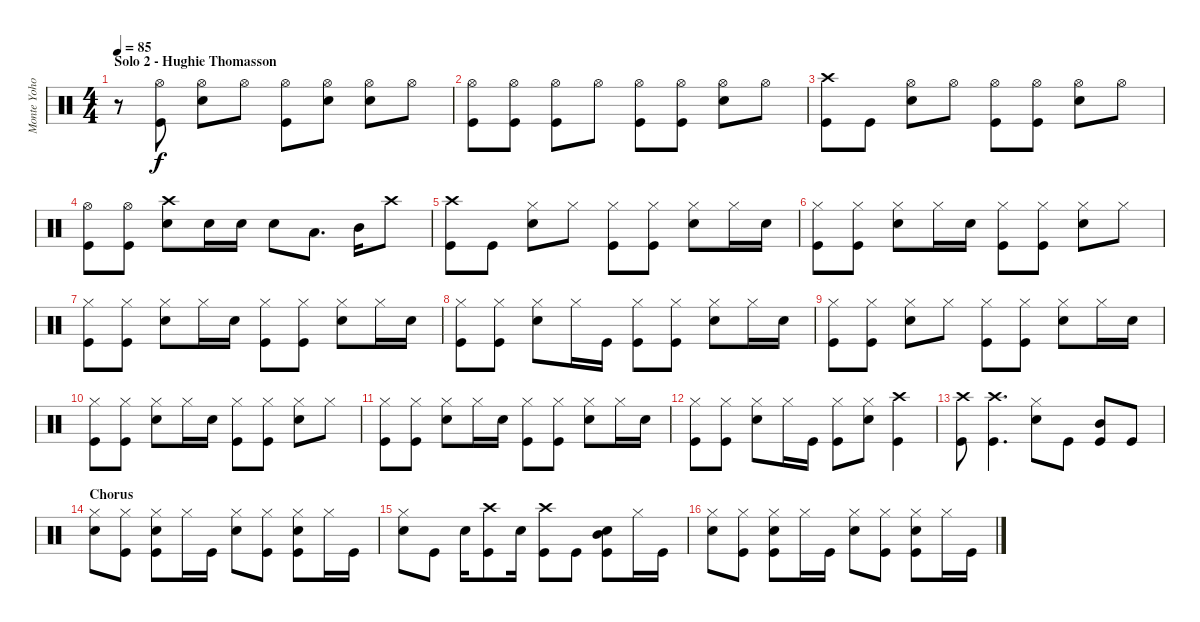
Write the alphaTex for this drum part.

\track ("Monte Yoho - Drums" "Monte Yoho") {instrument percussion}
\staff {score}
\articulation defaults
\ts (4 4)
\section ("" "Solo 2 - Hughie Thomasson")
\tempo 85
\clef neutral
\ks c
r.8{dy f} ("Hi-Hat (open)" "Kick (hit)").8 ("Hi-Hat (open)" "Snare (hit) 2").8 "Hi-Hat (open)".8 ("Hi-Hat (open)" "Kick (hit)").8 ("Hi-Hat (open)" "Snare (hit) 2").8 ("Hi-Hat (open)" "Snare (hit) 2").8 "Hi-Hat (open)".8 |
("Hi-Hat (open)" "Kick (hit)").8 ("Hi-Hat (open)" "Kick (hit)").8 ("Hi-Hat (open)" "Kick (hit)").8 "Hi-Hat (open)".8 ("Hi-Hat (open)" "Kick (hit)").8 ("Hi-Hat (open)" "Kick (hit)").8 ("Hi-Hat (open)" "Snare (hit) 2").8 "Hi-Hat (open)".8 |
("Crash high (hit)" "Kick (hit)").8 "Kick (hit)".8 ("Hi-Hat (open)" "Snare (hit) 2").8 "Hi-Hat (open)".8 ("Hi-Hat (open)" "Kick (hit)").8 ("Hi-Hat (open)" "Kick (hit)").8 ("Hi-Hat (open)" "Snare (hit) 2").8 "Hi-Hat (open)".8 |
("Hi-Hat (open)" "Kick (hit)").8 ("Hi-Hat (open)" "Kick (hit)").8 ("Crash high (hit)" "Snare (hit) 2").8 "Snare (hit) 2".16 "Snare (hit) 2".16 "Snare (hit) 2".8 "Low Tom (hit)".8{d} "Mid Tom (hit)".16 "Crash high (hit)".8 |
("Crash high (hit)" "Kick (hit)").8 "Kick (hit)".8 ("Hi-Hat (closed)" "Snare (hit) 2").8 "Hi-Hat (closed)".8 ("Hi-Hat (closed)" "Kick (hit)").8 ("Hi-Hat (closed)" "Kick (hit)").8 ("Hi-Hat (closed)" "Snare (hit) 2").8 "Hi-Hat (closed)".16 "Snare (hit) 2".16 |
("Hi-Hat (closed)" "Kick (hit)").8 ("Hi-Hat (closed)" "Kick (hit)").8 ("Hi-Hat (closed)" "Snare (hit) 2").8 "Hi-Hat (closed)".16 "Snare (hit) 2".16 ("Hi-Hat (closed)" "Kick (hit)").8 ("Hi-Hat (closed)" "Kick (hit)").8 ("Hi-Hat (closed)" "Snare (hit) 2").8 "Hi-Hat (closed)".8 |
("Hi-Hat (closed)" "Kick (hit)").8 ("Hi-Hat (closed)" "Kick (hit)").8 ("Hi-Hat (closed)" "Snare (hit) 2").8 "Hi-Hat (closed)".16 "Snare (hit) 2".16 ("Hi-Hat (closed)" "Kick (hit)").8 ("Hi-Hat (closed)" "Kick (hit)").8 ("Hi-Hat (closed)" "Snare (hit) 2").8 "Hi-Hat (closed)".16 "Snare (hit) 2".16 |
("Hi-Hat (closed)" "Kick (hit)").8 ("Hi-Hat (closed)" "Kick (hit)").8 ("Hi-Hat (closed)" "Snare (hit) 2").8 "Hi-Hat (closed)".16 "Kick (hit)".16 ("Hi-Hat (closed)" "Kick (hit)").8 ("Hi-Hat (closed)" "Kick (hit)").8 ("Hi-Hat (closed)" "Snare (hit) 2").8 "Hi-Hat (closed)".16 "Snare (hit) 2".16 |
("Hi-Hat (closed)" "Kick (hit)").8 ("Hi-Hat (closed)" "Kick (hit)").8 ("Hi-Hat (closed)" "Snare (hit) 2").8 "Hi-Hat (closed)".8 ("Hi-Hat (closed)" "Kick (hit)").8 ("Hi-Hat (closed)" "Kick (hit)").8 ("Hi-Hat (closed)" "Snare (hit) 2").8 "Hi-Hat (closed)".16 "Snare (hit) 2".16 |
("Hi-Hat (closed)" "Kick (hit)").8 ("Hi-Hat (closed)" "Kick (hit)").8 ("Hi-Hat (closed)" "Snare (hit) 2").8 "Hi-Hat (closed)".16 "Snare (hit) 2".16 ("Hi-Hat (closed)" "Kick (hit)").8 ("Hi-Hat (closed)" "Kick (hit)").8 ("Hi-Hat (closed)" "Snare (hit) 2").8 "Hi-Hat (closed)".8 |
("Hi-Hat (closed)" "Kick (hit)").8 ("Hi-Hat (closed)" "Kick (hit)").8 ("Hi-Hat (closed)" "Snare (hit) 2").8 "Hi-Hat (closed)".16 "Snare (hit) 2".16 ("Hi-Hat (closed)" "Kick (hit)").8 ("Hi-Hat (closed)" "Kick (hit)").8 ("Hi-Hat (closed)" "Snare (hit) 2").8 "Hi-Hat (closed)".16 "Snare (hit) 2".16 |
("Hi-Hat (closed)" "Kick (hit)").8 ("Hi-Hat (closed)" "Kick (hit)").8 ("Hi-Hat (closed)" "Snare (hit) 2").8 "Hi-Hat (closed)".16 "Kick (hit)".16 ("Hi-Hat (closed)" "Kick (hit)").8 ("Hi-Hat (closed)" "Snare (hit) 2").8 ("Crash high (hit)" "Kick (hit)").4 |
("Crash high (hit)" "Kick (hit)").8 ("Crash high (hit)" "Kick (hit)").4{d} ("Hi-Hat (closed)" "Snare (hit) 2").8 "Kick (hit)".8 ("Mid Tom (hit)" "Kick (hit)").8 "Kick (hit)".8 |
\section ("" "Chorus")
("Hi-Hat (closed)" "Snare (hit) 2").8 ("Hi-Hat (closed)" "Kick (hit)").8 ("Hi-Hat (closed)" "Snare (hit) 2" "Kick (hit)").8 "Hi-Hat (closed)".16 "Kick (hit)".16 ("Hi-Hat (closed)" "Snare (hit) 2").8 ("Hi-Hat (closed)" "Kick (hit)").8 ("Hi-Hat (closed)" "Snare (hit) 2" "Kick (hit)").8 "Hi-Hat (closed)".16 "Kick (hit)".16 |
("Hi-Hat (closed)" "Snare (hit) 2").8 "Kick (hit)".8 "Snare (hit) 2".16 ("Crash high (hit)" "Kick (hit)").8 "Snare (hit) 2".16 ("Crash high (hit)" "Kick (hit)").8 "Kick (hit)".8 ("Mid Tom (hit)" "Snare (hit) 2" "Kick (hit)").8 "Hi-Hat (closed)".16 "Kick (hit)".16 |
("Hi-Hat (closed)" "Snare (hit) 2").8 ("Hi-Hat (closed)" "Kick (hit)").8 ("Hi-Hat (closed)" "Snare (hit) 2" "Kick (hit)").8 "Hi-Hat (closed)".16 "Kick (hit)".16 ("Hi-Hat (closed)" "Snare (hit) 2").8 ("Hi-Hat (closed)" "Kick (hit)").8 ("Hi-Hat (closed)" "Snare (hit) 2" "Kick (hit)").8 "Hi-Hat (closed)".16 "Kick (hit)".16
